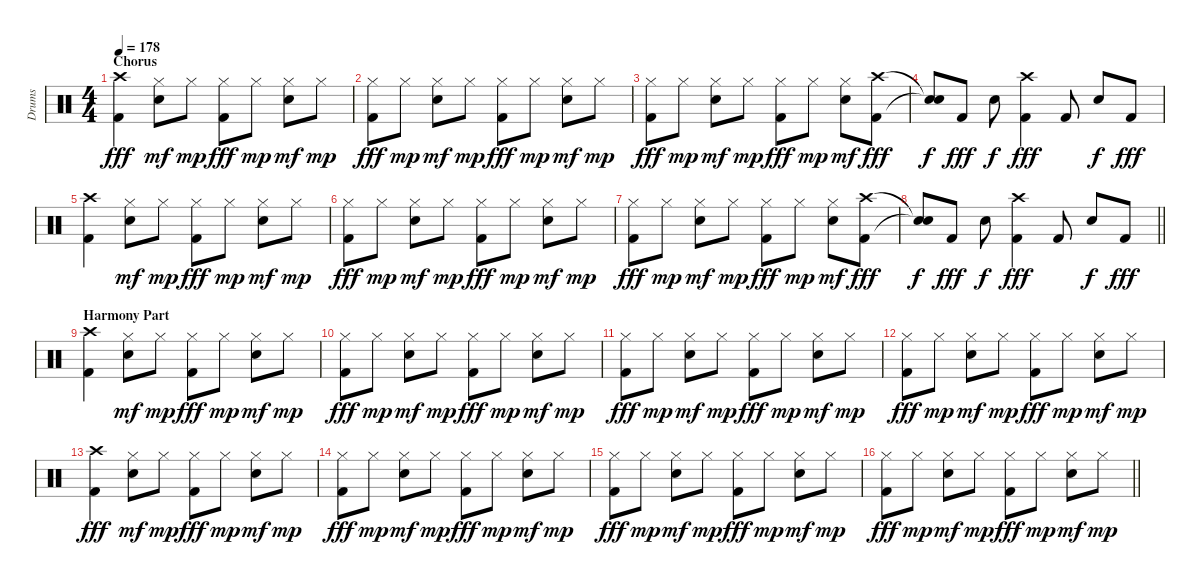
\track ("Drums" "Drums") {instrument percussion}
\staff {score}
\articulation defaults
\ts (4 4)
\section ("" "Chorus")
\tempo 178
\clef neutral
\ks c
("Crash high (hit)" "Kick (hit) 2").4{dy fff} ("Hi-Hat (closed)" "Electric Snare (hit)").8{dy mf} "Hi-Hat (closed)".8{dy mp} ("Hi-Hat (closed)" "Kick (hit) 2").8{dy fff} "Hi-Hat (closed)".8{dy mp} ("Hi-Hat (closed)" "Electric Snare (hit)").8{dy mf} "Hi-Hat (closed)".8{dy mp} |
("Hi-Hat (closed)" "Kick (hit) 2").8{dy fff} "Hi-Hat (closed)".8{dy mp} ("Hi-Hat (closed)" "Electric Snare (hit)").8{dy mf} "Hi-Hat (closed)".8{dy mp} ("Hi-Hat (closed)" "Kick (hit) 2").8{dy fff} "Hi-Hat (closed)".8{dy mp} ("Hi-Hat (closed)" "Electric Snare (hit)").8{dy mf} "Hi-Hat (closed)".8{dy mp} |
("Hi-Hat (closed)" "Kick (hit) 2").8{dy fff} "Hi-Hat (closed)".8{dy mp} ("Hi-Hat (closed)" "Electric Snare (hit)").8{dy mf} "Hi-Hat (closed)".8{dy mp} ("Hi-Hat (closed)" "Kick (hit) 2").8{dy fff} "Hi-Hat (closed)".8{dy mp} ("Hi-Hat (closed)" "Electric Snare (hit)").8{dy mf} ("Crash high (hit)" "Kick (hit) 2").8{dy fff} |
("Snare (hit)"{t} "Snare (hit)"{t}).8{dy f} "Kick (hit) 2".8{dy fff} "Electric Snare (hit)".8{dy f} ("Crash high (hit)" "Kick (hit) 2").4{dy fff} "Kick (hit) 2".8 "Electric Snare (hit)".8{dy f} "Kick (hit) 2".8{dy fff} |
("Crash high (hit)" "Kick (hit) 2").4 ("Hi-Hat (closed)" "Electric Snare (hit)").8{dy mf} "Hi-Hat (closed)".8{dy mp} ("Hi-Hat (closed)" "Kick (hit) 2").8{dy fff} "Hi-Hat (closed)".8{dy mp} ("Hi-Hat (closed)" "Electric Snare (hit)").8{dy mf} "Hi-Hat (closed)".8{dy mp} |
("Hi-Hat (closed)" "Kick (hit) 2").8{dy fff} "Hi-Hat (closed)".8{dy mp} ("Hi-Hat (closed)" "Electric Snare (hit)").8{dy mf} "Hi-Hat (closed)".8{dy mp} ("Hi-Hat (closed)" "Kick (hit) 2").8{dy fff} "Hi-Hat (closed)".8{dy mp} ("Hi-Hat (closed)" "Electric Snare (hit)").8{dy mf} "Hi-Hat (closed)".8{dy mp} |
("Hi-Hat (closed)" "Kick (hit) 2").8{dy fff} "Hi-Hat (closed)".8{dy mp} ("Hi-Hat (closed)" "Electric Snare (hit)").8{dy mf} "Hi-Hat (closed)".8{dy mp} ("Hi-Hat (closed)" "Kick (hit) 2").8{dy fff} "Hi-Hat (closed)".8{dy mp} ("Hi-Hat (closed)" "Electric Snare (hit)").8{dy mf} ("Crash high (hit)" "Kick (hit) 2").8{dy fff} |
\barLineRight lightlight
("Snare (hit)"{t} "Snare (hit)"{t}).8{dy f} "Kick (hit) 2".8{dy fff} "Electric Snare (hit)".8{dy f} ("Crash high (hit)" "Kick (hit) 2").4{dy fff} "Kick (hit) 2".8 "Electric Snare (hit)".8{dy f} "Kick (hit) 2".8{dy fff} |
\section ("" "Harmony Part")
("Crash high (hit)" "Kick (hit) 2").4 ("Hi-Hat (closed)" "Electric Snare (hit)").8{dy mf} "Hi-Hat (closed)".8{dy mp} ("Hi-Hat (closed)" "Kick (hit) 2").8{dy fff} "Hi-Hat (closed)".8{dy mp} ("Hi-Hat (closed)" "Electric Snare (hit)").8{dy mf} "Hi-Hat (closed)".8{dy mp} |
("Hi-Hat (closed)" "Kick (hit) 2").8{dy fff} "Hi-Hat (closed)".8{dy mp} ("Hi-Hat (closed)" "Electric Snare (hit)").8{dy mf} "Hi-Hat (closed)".8{dy mp} ("Hi-Hat (closed)" "Kick (hit) 2").8{dy fff} "Hi-Hat (closed)".8{dy mp} ("Hi-Hat (closed)" "Electric Snare (hit)").8{dy mf} "Hi-Hat (closed)".8{dy mp} |
("Hi-Hat (closed)" "Kick (hit) 2").8{dy fff} "Hi-Hat (closed)".8{dy mp} ("Hi-Hat (closed)" "Electric Snare (hit)").8{dy mf} "Hi-Hat (closed)".8{dy mp} ("Hi-Hat (closed)" "Kick (hit) 2").8{dy fff} "Hi-Hat (closed)".8{dy mp} ("Hi-Hat (closed)" "Electric Snare (hit)").8{dy mf} "Hi-Hat (closed)".8{dy mp} |
("Hi-Hat (closed)" "Kick (hit) 2").8{dy fff} "Hi-Hat (closed)".8{dy mp} ("Hi-Hat (closed)" "Electric Snare (hit)").8{dy mf} "Hi-Hat (closed)".8{dy mp} ("Hi-Hat (closed)" "Kick (hit) 2").8{dy fff} "Hi-Hat (closed)".8{dy mp} ("Hi-Hat (closed)" "Electric Snare (hit)").8{dy mf} "Hi-Hat (closed)".8{dy mp} |
("Crash high (hit)" "Kick (hit) 2").4{dy fff} ("Hi-Hat (closed)" "Electric Snare (hit)").8{dy mf} "Hi-Hat (closed)".8{dy mp} ("Hi-Hat (closed)" "Kick (hit) 2").8{dy fff} "Hi-Hat (closed)".8{dy mp} ("Hi-Hat (closed)" "Electric Snare (hit)").8{dy mf} "Hi-Hat (closed)".8{dy mp} |
("Hi-Hat (closed)" "Kick (hit) 2").8{dy fff} "Hi-Hat (closed)".8{dy mp} ("Hi-Hat (closed)" "Electric Snare (hit)").8{dy mf} "Hi-Hat (closed)".8{dy mp} ("Hi-Hat (closed)" "Kick (hit) 2").8{dy fff} "Hi-Hat (closed)".8{dy mp} ("Hi-Hat (closed)" "Electric Snare (hit)").8{dy mf} "Hi-Hat (closed)".8{dy mp} |
("Hi-Hat (closed)" "Kick (hit) 2").8{dy fff} "Hi-Hat (closed)".8{dy mp} ("Hi-Hat (closed)" "Electric Snare (hit)").8{dy mf} "Hi-Hat (closed)".8{dy mp} ("Hi-Hat (closed)" "Kick (hit) 2").8{dy fff} "Hi-Hat (closed)".8{dy mp} ("Hi-Hat (closed)" "Electric Snare (hit)").8{dy mf} "Hi-Hat (closed)".8{dy mp} |
\barLineRight lightlight
("Hi-Hat (closed)" "Kick (hit) 2").8{dy fff} "Hi-Hat (closed)".8{dy mp} ("Hi-Hat (closed)" "Electric Snare (hit)").8{dy mf} "Hi-Hat (closed)".8{dy mp} ("Hi-Hat (closed)" "Kick (hit) 2").8{dy fff} "Hi-Hat (closed)".8{dy mp} ("Hi-Hat (closed)" "Electric Snare (hit)").8{dy mf} "Hi-Hat (closed)".8{dy mp}
